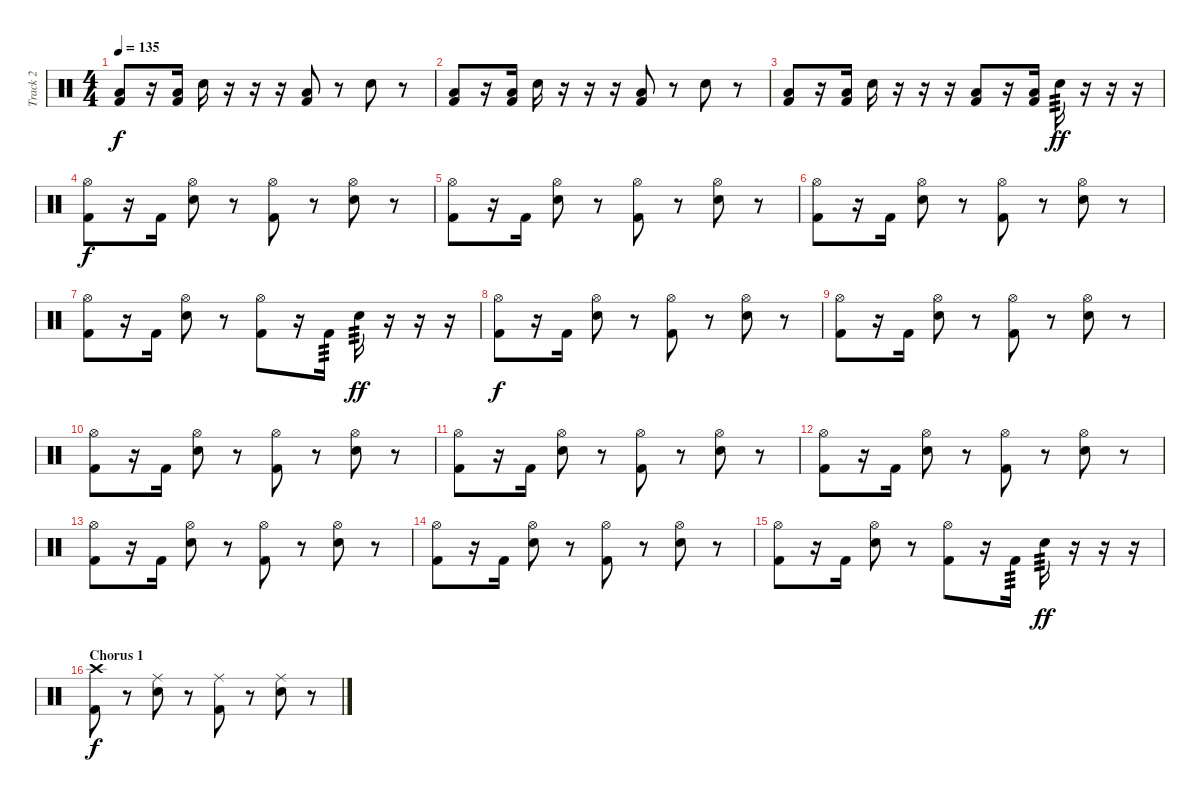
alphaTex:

\track ("Track 2" "Track 2") {instrument percussion}
\staff {score}
\articulation defaults
\ts (4 4)
\tempo 135
\clef neutral
\ks c
("Low Floor Tom (hit)" "Kick (hit) 2").8{dy f} r.16 ("Low Floor Tom (hit)" "Kick (hit) 2").16 "Electric Snare (hit)".16 r.16 r.16 r.16 ("Low Floor Tom (hit)" "Kick (hit) 2").8 r.8 "Electric Snare (hit)".8 r.8 |
("Low Floor Tom (hit)" "Kick (hit) 2").8 r.16 ("Low Floor Tom (hit)" "Kick (hit) 2").16 "Electric Snare (hit)".16 r.16 r.16 r.16 ("Low Floor Tom (hit)" "Kick (hit) 2").8 r.8 "Electric Snare (hit)".8 r.8 |
("Low Floor Tom (hit)" "Kick (hit) 2").8 r.16 ("Low Floor Tom (hit)" "Kick (hit) 2").16 "Electric Snare (hit)".16 r.16 r.16 r.16 ("Low Floor Tom (hit)" "Kick (hit) 2").8 r.16 ("Low Floor Tom (hit)" "Kick (hit) 2").16 "Electric Snare (hit)".16{tp 3 dy ff} r.16 r.16 r.16 |
("Hi-Hat (open)" "Kick (hit) 2").8{dy f} r.16 "Kick (hit) 2".16 ("Hi-Hat (open)" "Electric Snare (hit)").8 r.8 ("Hi-Hat (open)" "Kick (hit) 2").8 r.8 ("Hi-Hat (open)" "Electric Snare (hit)").8 r.8 |
("Hi-Hat (open)" "Kick (hit) 2").8 r.16 "Kick (hit) 2".16 ("Hi-Hat (open)" "Electric Snare (hit)").8 r.8 ("Hi-Hat (open)" "Kick (hit) 2").8 r.8 ("Hi-Hat (open)" "Electric Snare (hit)").8 r.8 |
("Hi-Hat (open)" "Kick (hit) 2").8 r.16 "Kick (hit) 2".16 ("Hi-Hat (open)" "Electric Snare (hit)").8 r.8 ("Hi-Hat (open)" "Kick (hit) 2").8 r.8 ("Hi-Hat (open)" "Electric Snare (hit)").8 r.8 |
("Hi-Hat (open)" "Kick (hit) 2").8 r.16 "Kick (hit) 2".16 ("Hi-Hat (open)" "Electric Snare (hit)").8 r.8 ("Hi-Hat (open)" "Kick (hit) 2").8 r.16 "Kick (hit) 2".16{tp 3} "Electric Snare (hit)".16{tp 3 dy ff} r.16 r.16 r.16 |
("Hi-Hat (open)" "Kick (hit) 2").8{dy f} r.16 "Kick (hit) 2".16 ("Hi-Hat (open)" "Electric Snare (hit)").8 r.8 ("Hi-Hat (open)" "Kick (hit) 2").8 r.8 ("Hi-Hat (open)" "Electric Snare (hit)").8 r.8 |
("Hi-Hat (open)" "Kick (hit) 2").8 r.16 "Kick (hit) 2".16 ("Hi-Hat (open)" "Electric Snare (hit)").8 r.8 ("Hi-Hat (open)" "Kick (hit) 2").8 r.8 ("Hi-Hat (open)" "Electric Snare (hit)").8 r.8 |
("Hi-Hat (open)" "Kick (hit) 2").8 r.16 "Kick (hit) 2".16 ("Hi-Hat (open)" "Electric Snare (hit)").8 r.8 ("Hi-Hat (open)" "Kick (hit) 2").8 r.8 ("Hi-Hat (open)" "Electric Snare (hit)").8 r.8 |
("Hi-Hat (open)" "Kick (hit) 2").8 r.16 "Kick (hit) 2".16 ("Hi-Hat (open)" "Electric Snare (hit)").8 r.8 ("Hi-Hat (open)" "Kick (hit) 2").8 r.8 ("Hi-Hat (open)" "Electric Snare (hit)").8 r.8 |
("Hi-Hat (open)" "Kick (hit) 2").8 r.16 "Kick (hit) 2".16 ("Hi-Hat (open)" "Electric Snare (hit)").8 r.8 ("Hi-Hat (open)" "Kick (hit) 2").8 r.8 ("Hi-Hat (open)" "Electric Snare (hit)").8 r.8 |
("Hi-Hat (open)" "Kick (hit) 2").8 r.16 "Kick (hit) 2".16 ("Hi-Hat (open)" "Electric Snare (hit)").8 r.8 ("Hi-Hat (open)" "Kick (hit) 2").8 r.8 ("Hi-Hat (open)" "Electric Snare (hit)").8 r.8 |
("Hi-Hat (open)" "Kick (hit) 2").8 r.16 "Kick (hit) 2".16 ("Hi-Hat (open)" "Electric Snare (hit)").8 r.8 ("Hi-Hat (open)" "Kick (hit) 2").8 r.8 ("Hi-Hat (open)" "Electric Snare (hit)").8 r.8 |
("Hi-Hat (open)" "Kick (hit) 2").8 r.16 "Kick (hit) 2".16 ("Hi-Hat (open)" "Electric Snare (hit)").8 r.8 ("Hi-Hat (open)" "Kick (hit) 2").8 r.16 "Kick (hit) 2".16{tp 3} "Electric Snare (hit)".16{tp 3 dy ff} r.16 r.16 r.16 |
\section ("" "Chorus 1")
("Crash high (hit)" "Kick (hit) 2").8{dy f} r.8 ("Ride (middle)" "Electric Snare (hit)").8 r.8 ("Ride (middle)" "Kick (hit) 2").8 r.8 ("Ride (middle)" "Electric Snare (hit)").8 r.8
